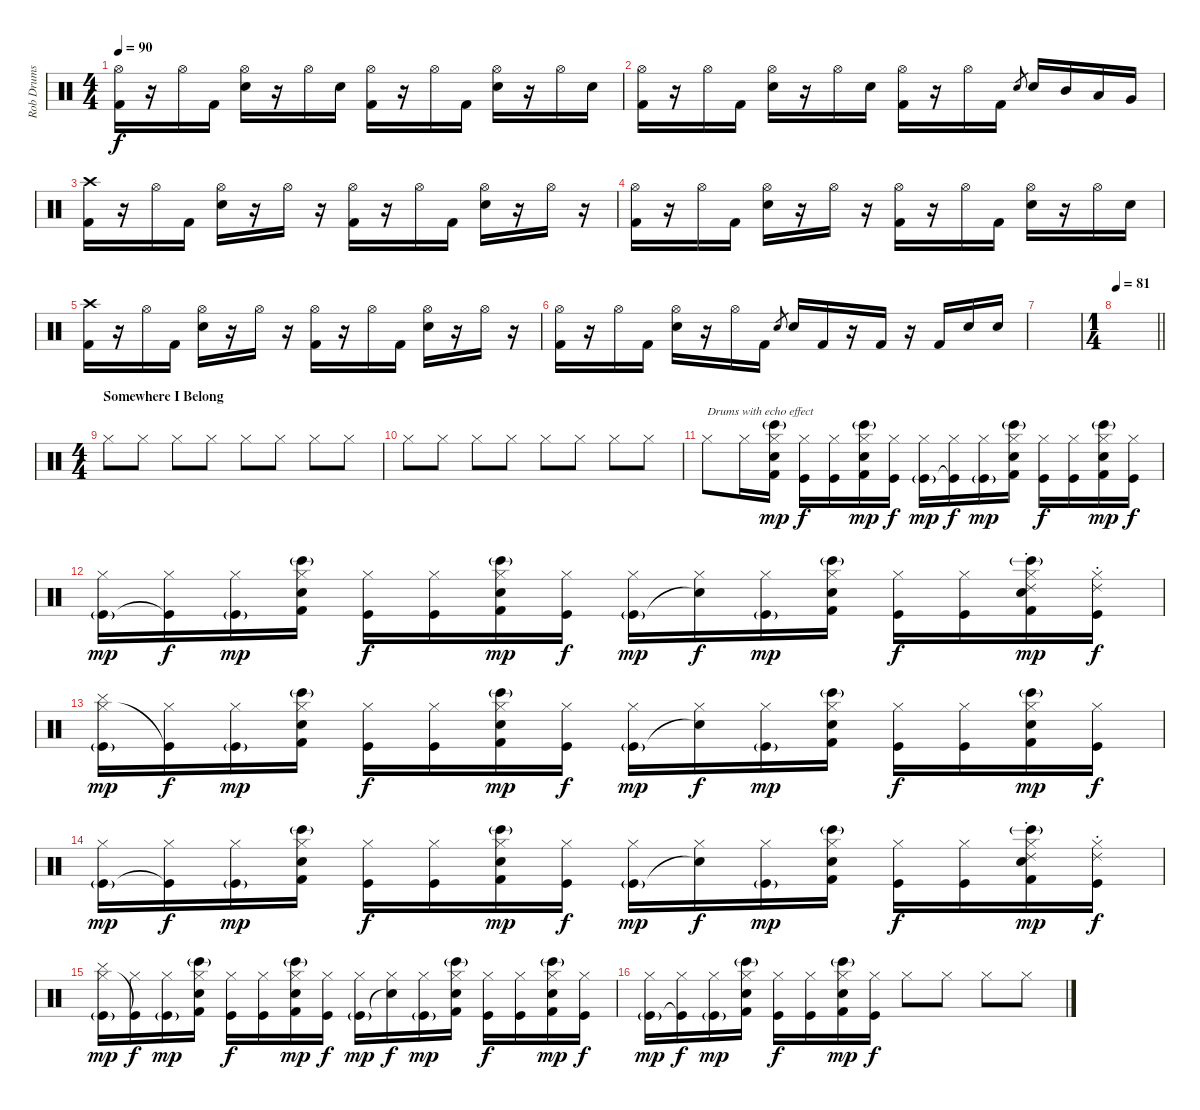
\track ("Rob Drums" "Rob Drums") {instrument percussion}
\staff {score}
\articulation defaults
\ts (4 4)
\tempo 90
\clef neutral
\ks c
("Hi-Hat (open)" "Kick (hit) 2").16{dy f} r.16 "Hi-Hat (open)".16 "Kick (hit) 2".16 ("Hi-Hat (open)" "Electric Snare (hit)").16 r.16 "Hi-Hat (open)".16 "Electric Snare (hit)".16 ("Hi-Hat (open)" "Kick (hit) 2").16 r.16 "Hi-Hat (open)".16 "Kick (hit) 2".16 ("Hi-Hat (open)" "Electric Snare (hit)").16 r.16 "Hi-Hat (open)".16 "Electric Snare (hit)".16 |
("Hi-Hat (open)" "Kick (hit) 2").16 r.16 "Hi-Hat (open)".16 "Kick (hit) 2".16 ("Hi-Hat (open)" "Electric Snare (hit)").16 r.16 "Hi-Hat (open)".16 "Electric Snare (hit)".16 ("Hi-Hat (open)" "Kick (hit) 2").16 r.16 "Hi-Hat (open)".16 "Kick (hit) 2".16 "Electric Snare (hit)".8{gr} "Electric Snare (hit)".16 "Mid Tom (hit)".16 "Low Tom (hit)".16 "Very Low Tom (hit)".16 |
("Crash high (hit)" "Kick (hit) 2").16 r.16 "Hi-Hat (open)".16 "Kick (hit) 2".16 ("Hi-Hat (open)" "Electric Snare (hit)").16 r.16 "Hi-Hat (open)".16 r.16 ("Hi-Hat (open)" "Kick (hit) 2").16 r.16 "Hi-Hat (open)".16 "Kick (hit) 2".16 ("Hi-Hat (open)" "Electric Snare (hit)").16 r.16 "Hi-Hat (open)".16 r.16 |
("Hi-Hat (open)" "Kick (hit) 2").16 r.16 "Hi-Hat (open)".16 "Kick (hit) 2".16 ("Hi-Hat (open)" "Electric Snare (hit)").16 r.16 "Hi-Hat (open)".16 r.16 ("Hi-Hat (open)" "Kick (hit) 2").16 r.16 "Hi-Hat (open)".16 "Kick (hit) 2".16 ("Hi-Hat (open)" "Electric Snare (hit)").16 r.16 "Hi-Hat (open)".16 "Electric Snare (hit)".16 |
("Crash high (hit)" "Kick (hit) 2").16 r.16 "Hi-Hat (open)".16 "Kick (hit) 2".16 ("Hi-Hat (open)" "Electric Snare (hit)").16 r.16 "Hi-Hat (open)".16 r.16 ("Hi-Hat (open)" "Kick (hit) 2").16 r.16 "Hi-Hat (open)".16 "Kick (hit) 2".16 ("Hi-Hat (open)" "Electric Snare (hit)").16 r.16 "Hi-Hat (open)".16 r.16 |
("Hi-Hat (open)" "Kick (hit) 2").16 r.16 "Hi-Hat (open)".16 "Kick (hit) 2".16 ("Hi-Hat (open)" "Electric Snare (hit)").16 r.16 "Hi-Hat (open)".16 "Kick (hit) 2".16 "Electric Snare (hit)".8{gr} "Electric Snare (hit)".16 "Kick (hit) 2".16 r.16 "Kick (hit) 2".16 r.16 "Kick (hit) 2".16 "Electric Snare (hit)".16 "Electric Snare (hit)".16 |
|
\ts (1 4)
\tempo 81
\barLineRight lightlight
|
\ts (4 4)
\section ("" "Somewhere I Belong")
"Hi-Hat (closed)".8 "Hi-Hat (closed)".8 "Hi-Hat (closed)".8 "Hi-Hat (closed)".8 "Hi-Hat (closed)".8 "Hi-Hat (closed)".8 "Hi-Hat (closed)".8 "Hi-Hat (closed)".8 |
"Hi-Hat (closed)".8 "Hi-Hat (closed)".8 "Hi-Hat (closed)".8 "Hi-Hat (closed)".8 "Hi-Hat (closed)".8 "Hi-Hat (closed)".8 "Hi-Hat (closed)".8 "Hi-Hat (closed)".8 |
"Hi-Hat (closed)".8{txt "Drums with echo effect" volume 10} "Hi-Hat (closed)".16 ("Hi-Hat (closed)" "Bongo High (hit)"{g} "Snare (hit) 2" "Kick (hit) 2").16{dy mp volume 7 balance 8} ("Hi-Hat (closed)" "Kick (hit)").16{dy f balance 16} ("Hi-Hat (closed)" "Kick (hit)").16{balance 0} ("Hi-Hat (closed)" "Bongo High (hit)"{g} "Snare (hit) 2" "Kick (hit) 2").16{dy mp balance 8} ("Hi-Hat (closed)" "Kick (hit)").16{dy f balance 16} ("Hi-Hat (closed)" "Kick (hit)"{g}).16{dy mp} ("Hi-Hat (closed)" "Kick (hit)"{t}).16{dy f} ("Hi-Hat (closed)" "Kick (hit)"{g}).16{dy mp balance 0} ("Hi-Hat (closed)" "Bongo High (hit)"{g} "Snare (hit) 2" "Kick (hit) 2").16{balance 8} ("Hi-Hat (closed)" "Kick (hit)").16{dy f balance 16} ("Hi-Hat (closed)" "Kick (hit)").16{balance 0} ("Hi-Hat (closed)" "Bongo High (hit)"{g} "Snare (hit) 2" "Kick (hit) 2").16{dy mp balance 8} ("Hi-Hat (closed)" "Kick (hit)").16{dy f} |
("Hi-Hat (closed)" "Kick (hit)"{g}).16{dy mp volume 10 balance 16} ("Hi-Hat (closed)" "Kick (hit)"{t}).16{dy f} ("Hi-Hat (closed)" "Kick (hit)"{g}).16{dy mp balance 0} ("Hi-Hat (closed)" "Bongo High (hit)"{g} "Snare (hit) 2" "Kick (hit) 2").16{balance 8} ("Hi-Hat (closed)" "Kick (hit)").16{dy f balance 16} ("Hi-Hat (closed)" "Kick (hit)").16{balance 0} ("Hi-Hat (closed)" "Bongo High (hit)"{g} "Snare (hit) 2" "Kick (hit) 2").16{dy mp balance 8} ("Hi-Hat (closed)" "Kick (hit)").16{dy f} ("Hi-Hat (closed)" "Kick (hit)"{g}).16{dy mp balance 16} ("Hi-Hat (closed)" "Snare (hit)"{t}).16{dy f} ("Hi-Hat (closed)" "Kick (hit)"{g}).16{dy mp balance 0} ("Hi-Hat (closed)" "Bongo High (hit)"{g} "Snare (hit) 2" "Kick (hit) 2").16{balance 8} ("Hi-Hat (closed)" "Kick (hit)").16{dy f balance 16} ("Hi-Hat (closed)" "Kick (hit)").16{balance 0} ("Ride (choke) 2" "Hi-Hat (closed)" "Bongo High (hit)"{g} "Snare (hit) 2" "Kick (hit) 2").16{dy mp balance 8} ("Ride (choke) 2" "Hi-Hat (closed)" "Kick (hit)").16{dy f} |
("Cymbal (hit)" "Hi-Hat (closed)" "Kick (hit)"{g}).16{dy mp volume 10 balance 16} ("Hi-Hat (closed)" "Kick (hit)"{t}).16{dy f} ("Hi-Hat (closed)" "Kick (hit)"{g}).16{dy mp balance 0} ("Hi-Hat (closed)" "Bongo High (hit)"{g} "Snare (hit) 2" "Kick (hit) 2").16{balance 8} ("Hi-Hat (closed)" "Kick (hit)").16{dy f balance 16} ("Hi-Hat (closed)" "Kick (hit)").16{balance 0} ("Hi-Hat (closed)" "Bongo High (hit)"{g} "Snare (hit) 2" "Kick (hit) 2").16{dy mp balance 8} ("Hi-Hat (closed)" "Kick (hit)").16{dy f} ("Hi-Hat (closed)" "Kick (hit)"{g}).16{dy mp balance 16} ("Hi-Hat (closed)" "Snare (hit)"{t}).16{dy f} ("Hi-Hat (closed)" "Kick (hit)"{g}).16{dy mp balance 0} ("Hi-Hat (closed)" "Bongo High (hit)"{g} "Snare (hit) 2" "Kick (hit) 2").16{balance 8} ("Hi-Hat (closed)" "Kick (hit)").16{dy f balance 16} ("Hi-Hat (closed)" "Kick (hit)").16{balance 0} ("Hi-Hat (closed)" "Bongo High (hit)"{g} "Snare (hit) 2" "Kick (hit) 2").16{dy mp balance 8} ("Hi-Hat (closed)" "Kick (hit)").16{dy f} |
("Hi-Hat (closed)" "Kick (hit)"{g}).16{dy mp volume 10 balance 16} ("Hi-Hat (closed)" "Kick (hit)"{t}).16{dy f} ("Hi-Hat (closed)" "Kick (hit)"{g}).16{dy mp balance 0} ("Hi-Hat (closed)" "Bongo High (hit)"{g} "Snare (hit) 2" "Kick (hit) 2").16{balance 8} ("Hi-Hat (closed)" "Kick (hit)").16{dy f balance 16} ("Hi-Hat (closed)" "Kick (hit)").16{balance 0} ("Hi-Hat (closed)" "Bongo High (hit)"{g} "Snare (hit) 2" "Kick (hit) 2").16{dy mp balance 8} ("Hi-Hat (closed)" "Kick (hit)").16{dy f} ("Hi-Hat (closed)" "Kick (hit)"{g}).16{dy mp balance 16} ("Hi-Hat (closed)" "Snare (hit)"{t}).16{dy f} ("Hi-Hat (closed)" "Kick (hit)"{g}).16{dy mp balance 0} ("Hi-Hat (closed)" "Bongo High (hit)"{g} "Snare (hit) 2" "Kick (hit) 2").16{balance 8} ("Hi-Hat (closed)" "Kick (hit)").16{dy f balance 16} ("Hi-Hat (closed)" "Kick (hit)").16{balance 0} ("Ride (choke) 2" "Hi-Hat (closed)" "Bongo High (hit)"{g} "Snare (hit) 2" "Kick (hit) 2").16{dy mp balance 8} ("Ride (choke) 2" "Hi-Hat (closed)" "Kick (hit)").16{dy f} |
("Cymbal (hit)" "Hi-Hat (closed)" "Kick (hit)"{g}).16{dy mp volume 10 balance 16} ("Hi-Hat (closed)" "Kick (hit)"{t}).16{dy f} ("Hi-Hat (closed)" "Kick (hit)"{g}).16{dy mp balance 0} ("Hi-Hat (closed)" "Bongo High (hit)"{g} "Snare (hit) 2" "Kick (hit) 2").16{balance 8} ("Hi-Hat (closed)" "Kick (hit)").16{dy f balance 16} ("Hi-Hat (closed)" "Kick (hit)").16{balance 0} ("Hi-Hat (closed)" "Bongo High (hit)"{g} "Snare (hit) 2" "Kick (hit) 2").16{dy mp balance 8} ("Hi-Hat (closed)" "Kick (hit)").16{dy f} ("Hi-Hat (closed)" "Kick (hit)"{g}).16{dy mp balance 16} ("Hi-Hat (closed)" "Snare (hit)"{t}).16{dy f} ("Hi-Hat (closed)" "Kick (hit)"{g}).16{dy mp balance 0} ("Hi-Hat (closed)" "Bongo High (hit)"{g} "Snare (hit) 2" "Kick (hit) 2").16{balance 8} ("Hi-Hat (closed)" "Kick (hit)").16{dy f balance 16} ("Hi-Hat (closed)" "Kick (hit)").16{balance 0} ("Hi-Hat (closed)" "Bongo High (hit)"{g} "Snare (hit) 2" "Kick (hit) 2").16{dy mp balance 8} ("Hi-Hat (closed)" "Kick (hit)").16{dy f} |
("Hi-Hat (closed)" "Kick (hit)"{g}).16{dy mp volume 10 balance 16} ("Hi-Hat (closed)" "Kick (hit)"{t}).16{dy f} ("Hi-Hat (closed)" "Kick (hit)"{g}).16{dy mp balance 0} ("Hi-Hat (closed)" "Bongo High (hit)"{g} "Snare (hit) 2" "Kick (hit) 2").16{balance 8} ("Hi-Hat (closed)" "Kick (hit)").16{dy f balance 16} ("Hi-Hat (closed)" "Kick (hit)").16{balance 0} ("Hi-Hat (closed)" "Bongo High (hit)"{g} "Snare (hit) 2" "Kick (hit) 2").16{dy mp balance 8} ("Hi-Hat (closed)" "Kick (hit)").16{dy f} "Hi-Hat (closed)".8 "Hi-Hat (closed)".8 "Hi-Hat (closed)".8 "Hi-Hat (closed)".8
